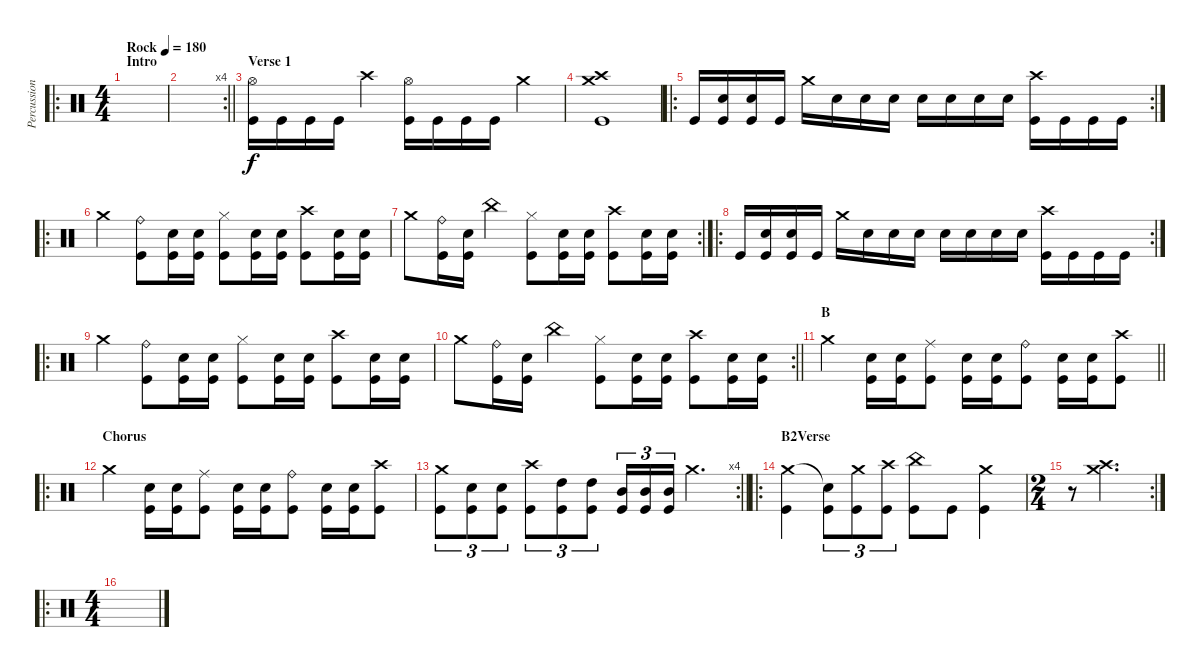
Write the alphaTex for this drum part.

\track ("Percussion" "Percussion") {instrument percussion}
\staff {score}
\articulation defaults
\ro
\ts (4 4)
\section ("" "Intro")
\tempo (180 "Rock")
\clef neutral
\ks c
|
\rc 4
\barLineRight lightlight
|
\section ("" "Verse 1")
("Hi-Hat (open)" "Kick (hit)").16 "Kick (hit)".16 "Kick (hit)".16 "Kick (hit)".16 "Crash high (hit)".4 ("Hi-Hat (open)" "Kick (hit)").16 "Kick (hit)".16 "Kick (hit)".16 "Kick (hit)".16 "Crash medium (hit)".4 |
("Crash medium (hit)" "Crash high (hit)" "Kick (hit)").1 |
\ro
\rc 2 "Kick (hit)".16
("Electric Snare (hit)" "Kick (hit)").16 ("Electric Snare (hit)" "Kick (hit)").16 "Kick (hit)".16 "Crash medium (hit)".16 "Electric Snare (hit)".16 "Electric Snare (hit)".16 "Electric Snare (hit)".16 "Electric Snare (hit)".16 "Electric Snare (hit)".16 "Electric Snare (hit)".16 "Electric Snare (hit)".16 ("Crash high (hit)" "Kick (hit)").16 "Kick (hit)".16 "Kick (hit)".16 "Kick (hit)".16 |
\ro "Crash medium (hit)".4
("Ride (bell)" "Kick (hit)").8 ("Electric Snare (hit)" "Kick (hit)").16 ("Electric Snare (hit)" "Kick (hit)").16 ("Hi-Hat (closed)" "Kick (hit)").8 ("Electric Snare (hit)" "Kick (hit)").16 ("Electric Snare (hit)" "Kick (hit)").16 ("Crash high (hit)" "Kick (hit)").8 ("Electric Snare (hit)" "Kick (hit)").16 ("Electric Snare (hit)" "Kick (hit)").16 |
\rc 2 "Crash medium (hit)".8
("Ride (bell)" "Kick (hit)").16 ("Electric Snare (hit)" "Kick (hit)").16 "China (hit)".4 ("Hi-Hat (closed)" "Kick (hit)").8 ("Electric Snare (hit)" "Kick (hit)").16 ("Electric Snare (hit)" "Kick (hit)").16 ("Crash high (hit)" "Kick (hit)").8 ("Electric Snare (hit)" "Kick (hit)").16 ("Electric Snare (hit)" "Kick (hit)").16 |
\ro
\rc 2 "Kick (hit)".16
("Electric Snare (hit)" "Kick (hit)").16 ("Electric Snare (hit)" "Kick (hit)").16 "Kick (hit)".16 "Crash medium (hit)".16 "Electric Snare (hit)".16 "Electric Snare (hit)".16 "Electric Snare (hit)".16 "Electric Snare (hit)".16 "Electric Snare (hit)".16 "Electric Snare (hit)".16 "Electric Snare (hit)".16 ("Crash high (hit)" "Kick (hit)").16 "Kick (hit)".16 "Kick (hit)".16 "Kick (hit)".16 |
\ro "Crash medium (hit)".4
("Ride (bell)" "Kick (hit)").8 ("Electric Snare (hit)" "Kick (hit)").16 ("Electric Snare (hit)" "Kick (hit)").16 ("Hi-Hat (closed)" "Kick (hit)").8 ("Electric Snare (hit)" "Kick (hit)").16 ("Electric Snare (hit)" "Kick (hit)").16 ("Crash high (hit)" "Kick (hit)").8 ("Electric Snare (hit)" "Kick (hit)").16 ("Electric Snare (hit)" "Kick (hit)").16 |
\rc 2
\barLineRight lightlight "Crash medium (hit)".8
("Ride (bell)" "Kick (hit)").16 ("Electric Snare (hit)" "Kick (hit)").16 "China (hit)".4 ("Hi-Hat (closed)" "Kick (hit)").8 ("Electric Snare (hit)" "Kick (hit)").16 ("Electric Snare (hit)" "Kick (hit)").16 ("Crash high (hit)" "Kick (hit)").8 ("Electric Snare (hit)" "Kick (hit)").16 ("Electric Snare (hit)" "Kick (hit)").16 |
\section ("" "B")
\barLineRight lightlight "Crash medium (hit)".4
("Kick (hit)" "Electric Snare (hit)").16 ("Kick (hit)" "Electric Snare (hit)").16 ("Ride (middle)" "Kick (hit)").8 ("Kick (hit)" "Electric Snare (hit)").16 ("Kick (hit)" "Electric Snare (hit)").16 ("Ride (bell)" "Kick (hit)").8 ("Kick (hit)" "Electric Snare (hit)").16 ("Kick (hit)" "Electric Snare (hit)").16 ("Crash high (hit)" "Kick (hit)").8 |
\ro
\section ("" "Chorus")
"Crash medium (hit)".4 ("Kick (hit)" "Electric Snare (hit)").16 ("Kick (hit)" "Electric Snare (hit)").16 ("Ride (middle)" "Kick (hit)").8 ("Kick (hit)" "Electric Snare (hit)").16 ("Kick (hit)" "Electric Snare (hit)").16 ("Ride (bell)" "Kick (hit)").8 ("Kick (hit)" "Electric Snare (hit)").16 ("Kick (hit)" "Electric Snare (hit)").16 ("Crash high (hit)" "Kick (hit)").8 |
\rc 4
\barLineRight lightlight
("Crash medium (hit)" "Kick (hit)").8{tu (3 2)} ("Electric Snare (hit)" "Kick (hit)").8{tu (3 2)} ("Electric Snare (hit)" "Kick (hit)").8{tu (3 2)} ("Crash high (hit)" "Kick (hit)").8{tu (3 2)} ("High Tom (hit)" "Kick (hit)").8{tu (3 2)} ("High Tom (hit)" "Kick (hit)").8{tu (3 2)} ("Mid Tom (hit)" "Kick (hit)").16{tu (3 2)} ("Mid Tom (hit)" "Kick (hit)").16{tu (3 2)} ("Mid Tom (hit)" "Kick (hit)").16{tu (3 2)} "Crash medium (hit)".4{d} |
\ro
\section ("" "B2Verse")
("Crash medium (hit)" "Kick (hit)").4{dy f} ("Snare (hit)"{t} "Kick (hit)").8{tu (3 2)} ("Crash medium (hit)" "Kick (hit)").8{tu (3 2)} ("Crash high (hit)" "Kick (hit)").8{tu (3 2)} ("China (hit)" "Kick (hit)").8 "Kick (hit)".8 ("Crash medium (hit)" "Kick (hit)").4 |
\rc 2
\ts (2 4)
r.8 ("Crash medium (hit)" "Crash high (hit)").4{d} |
\ro
\ts (4 4)
